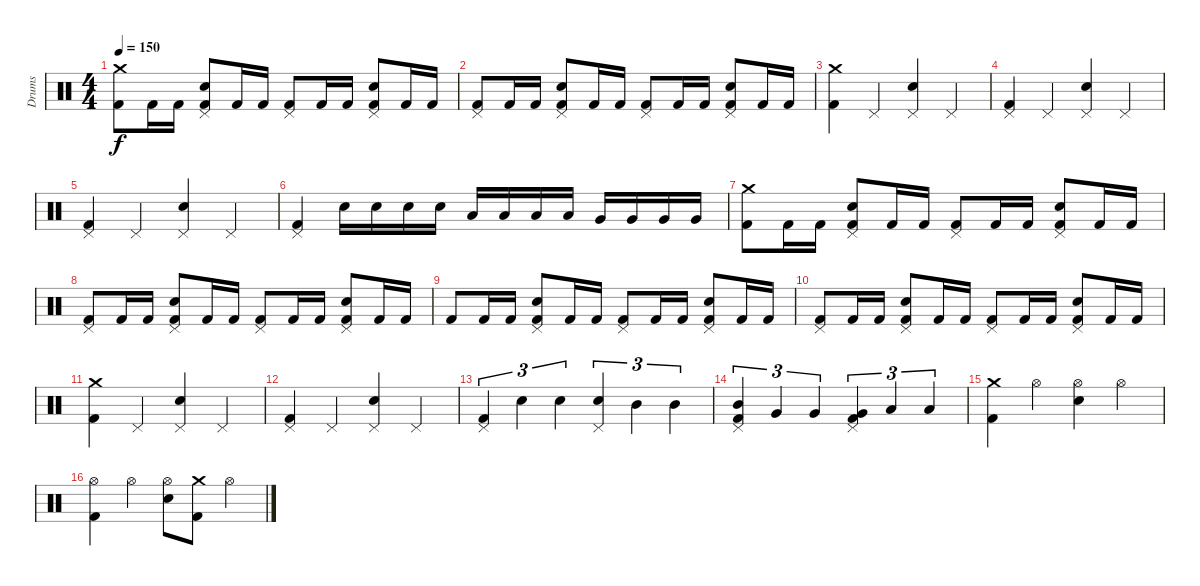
\track ("Drums" "Drums") {instrument percussion}
\staff {score}
\articulation defaults
\ts (4 4)
\tempo 150
\clef neutral
\ks c
("Crash medium (hit)" "Kick (hit) 2").8{dy f} "Kick (hit) 2".16 "Kick (hit) 2".16 ("Pedal Hi-Hat (hit)" "Electric Snare (hit)" "Kick (hit) 2").8 "Kick (hit) 2".16 "Kick (hit) 2".16 ("Pedal Hi-Hat (hit)" "Kick (hit) 2").8 "Kick (hit) 2".16 "Kick (hit) 2".16 ("Pedal Hi-Hat (hit)" "Electric Snare (hit)" "Kick (hit) 2").8 "Kick (hit) 2".16 "Kick (hit) 2".16 |
("Pedal Hi-Hat (hit)" "Kick (hit) 2").8 "Kick (hit) 2".16 "Kick (hit) 2".16 ("Pedal Hi-Hat (hit)" "Electric Snare (hit)" "Kick (hit) 2").8 "Kick (hit) 2".16 "Kick (hit) 2".16 ("Pedal Hi-Hat (hit)" "Kick (hit) 2").8 "Kick (hit) 2".16 "Kick (hit) 2".16 ("Pedal Hi-Hat (hit)" "Electric Snare (hit)" "Kick (hit) 2").8 "Kick (hit) 2".16 "Kick (hit) 2".16 |
("Crash medium (hit)" "Kick (hit) 2").4 "Pedal Hi-Hat (hit)".4 ("Pedal Hi-Hat (hit)" "Electric Snare (hit)").4 "Pedal Hi-Hat (hit)".4 |
("Pedal Hi-Hat (hit)" "Kick (hit) 2").4 "Pedal Hi-Hat (hit)".4 ("Pedal Hi-Hat (hit)" "Electric Snare (hit)").4 "Pedal Hi-Hat (hit)".4 |
("Pedal Hi-Hat (hit)" "Kick (hit) 2").4 "Pedal Hi-Hat (hit)".4 ("Pedal Hi-Hat (hit)" "Electric Snare (hit)").4 "Pedal Hi-Hat (hit)".4 |
("Pedal Hi-Hat (hit)" "Kick (hit) 2").4 "Electric Snare (hit)".16 "Electric Snare (hit)".16 "Electric Snare (hit)".16 "Electric Snare (hit)".16 "Low Tom (hit)".16 "Low Tom (hit)".16 "Low Tom (hit)".16 "Low Tom (hit)".16 "Very Low Tom (hit)".16 "Very Low Tom (hit)".16 "Very Low Tom (hit)".16 "Very Low Tom (hit)".16 |
("Crash medium (hit)" "Kick (hit) 2").8 "Kick (hit) 2".16 "Kick (hit) 2".16 ("Pedal Hi-Hat (hit)" "Electric Snare (hit)" "Kick (hit) 2").8 "Kick (hit) 2".16 "Kick (hit) 2".16 ("Pedal Hi-Hat (hit)" "Kick (hit) 2").8 "Kick (hit) 2".16 "Kick (hit) 2".16 ("Pedal Hi-Hat (hit)" "Electric Snare (hit)" "Kick (hit) 2").8 "Kick (hit) 2".16 "Kick (hit) 2".16 |
("Pedal Hi-Hat (hit)" "Kick (hit) 2").8 "Kick (hit) 2".16 "Kick (hit) 2".16 ("Pedal Hi-Hat (hit)" "Electric Snare (hit)" "Kick (hit) 2").8 "Kick (hit) 2".16 "Kick (hit) 2".16 ("Pedal Hi-Hat (hit)" "Kick (hit) 2").8 "Kick (hit) 2".16 "Kick (hit) 2".16 ("Pedal Hi-Hat (hit)" "Electric Snare (hit)" "Kick (hit) 2").8 "Kick (hit) 2".16 "Kick (hit) 2".16 |
"Kick (hit) 2".8 "Kick (hit) 2".16 "Kick (hit) 2".16 ("Pedal Hi-Hat (hit)" "Electric Snare (hit)" "Kick (hit) 2").8 "Kick (hit) 2".16 "Kick (hit) 2".16 ("Pedal Hi-Hat (hit)" "Kick (hit) 2").8 "Kick (hit) 2".16 "Kick (hit) 2".16 ("Pedal Hi-Hat (hit)" "Electric Snare (hit)" "Kick (hit) 2").8 "Kick (hit) 2".16 "Kick (hit) 2".16 |
("Pedal Hi-Hat (hit)" "Kick (hit) 2").8 "Kick (hit) 2".16 "Kick (hit) 2".16 ("Pedal Hi-Hat (hit)" "Electric Snare (hit)" "Kick (hit) 2").8 "Kick (hit) 2".16 "Kick (hit) 2".16 ("Pedal Hi-Hat (hit)" "Kick (hit) 2").8 "Kick (hit) 2".16 "Kick (hit) 2".16 ("Pedal Hi-Hat (hit)" "Electric Snare (hit)" "Kick (hit) 2").8 "Kick (hit) 2".16 "Kick (hit) 2".16 |
("Crash medium (hit)" "Kick (hit) 2").4 "Pedal Hi-Hat (hit)".4 ("Pedal Hi-Hat (hit)" "Electric Snare (hit)").4 "Pedal Hi-Hat (hit)".4 |
("Pedal Hi-Hat (hit)" "Kick (hit) 2").4 "Pedal Hi-Hat (hit)".4 ("Pedal Hi-Hat (hit)" "Electric Snare (hit)").4 "Pedal Hi-Hat (hit)".4 |
("Pedal Hi-Hat (hit)" "Kick (hit) 2").4{tu (3 2)} "Electric Snare (hit)".4{tu (3 2)} "Electric Snare (hit)".4{tu (3 2)} ("Pedal Hi-Hat (hit)" "Electric Snare (hit)").4{tu (3 2)} "Mid Tom (hit)".4{tu (3 2)} "Mid Tom (hit)".4{tu (3 2)} |
("Pedal Hi-Hat (hit)" "Mid Tom (hit)" "Kick (hit) 2").4{tu (3 2)} "Very Low Tom (hit)".4{tu (3 2)} "Very Low Tom (hit)".4{tu (3 2)} ("Pedal Hi-Hat (hit)" "Very Low Tom (hit)" "Kick (hit) 2").4{tu (3 2)} "Low Floor Tom (hit)".4{tu (3 2)} "Low Floor Tom (hit)".4{tu (3 2)} |
("Crash medium (hit)" "Kick (hit) 2").4 "Hi-Hat (open)".4 ("Hi-Hat (open)" "Electric Snare (hit)").4 "Hi-Hat (open)".4 |
("Hi-Hat (open)" "Kick (hit) 2").4 "Hi-Hat (open)".4 ("Hi-Hat (open)" "Electric Snare (hit)").8 ("Crash medium (hit)" "Kick (hit) 2").8 "Hi-Hat (open)".4
